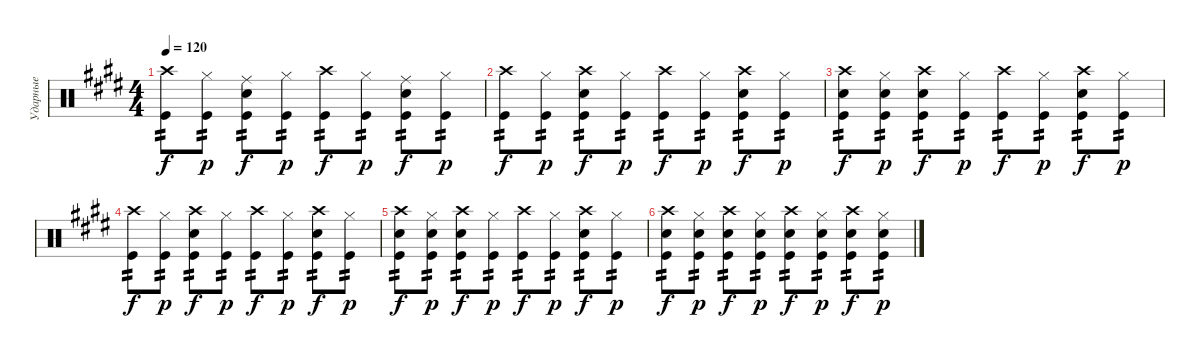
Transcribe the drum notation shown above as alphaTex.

\track ("Ударные" "Ударные") {instrument percussion}
\staff {score}
\articulation defaults
\ts (4 4)
\tempo 120
\clef neutral
\ks e
("Crash high (hit)" "Kick (hit)").8{tp 2 dy f} ("Hi-Hat (closed)" "Kick (hit)").8{tp 2 dy p} ("Ride (middle)" "Snare (hit) 2" "Kick (hit)").8{tp 2 dy f} ("Hi-Hat (closed)" "Kick (hit)").8{tp 2 dy p} ("Crash high (hit)" "Kick (hit)").8{tp 2 dy f} ("Hi-Hat (closed)" "Kick (hit)").8{tp 2 dy p} ("Ride (middle)" "Snare (hit) 2" "Kick (hit)").8{tp 2 dy f} ("Hi-Hat (closed)" "Kick (hit)").8{tp 2 dy p} |
("Crash high (hit)" "Kick (hit)").8{tp 2 dy f} ("Hi-Hat (closed)" "Kick (hit)").8{tp 2 dy p} ("Crash high (hit)" "Snare (hit) 2" "Kick (hit)").8{tp 2 dy f} ("Hi-Hat (closed)" "Kick (hit)").8{tp 2 dy p} ("Crash high (hit)" "Kick (hit)").8{tp 2 dy f} ("Hi-Hat (closed)" "Kick (hit)").8{tp 2 dy p} ("Crash high (hit)" "Snare (hit) 2" "Kick (hit)").8{tp 2 dy f} ("Hi-Hat (closed)" "Kick (hit)").8{tp 2 dy p} |
("Crash high (hit)" "Snare (hit) 2" "Kick (hit)").8{tp 2 dy f} ("Hi-Hat (closed)" "Snare (hit) 2" "Kick (hit)").8{tp 2 dy p} ("Crash high (hit)" "Snare (hit) 2" "Kick (hit)").8{tp 2 dy f} ("Hi-Hat (closed)" "Kick (hit)").8{tp 2 dy p} ("Crash high (hit)" "Kick (hit)").8{tp 2 dy f} ("Hi-Hat (closed)" "Kick (hit)").8{tp 2 dy p} ("Crash high (hit)" "Snare (hit) 2" "Kick (hit)").8{tp 2 dy f} ("Hi-Hat (closed)" "Kick (hit)").8{tp 2 dy p} |
("Crash high (hit)" "Kick (hit)").8{tp 2 dy f} ("Hi-Hat (closed)" "Kick (hit)").8{tp 2 dy p} ("Crash high (hit)" "Snare (hit) 2" "Kick (hit)").8{tp 2 dy f} ("Hi-Hat (closed)" "Kick (hit)").8{tp 2 dy p} ("Crash high (hit)" "Kick (hit)").8{tp 2 dy f} ("Hi-Hat (closed)" "Kick (hit)").8{tp 2 dy p} ("Crash high (hit)" "Snare (hit) 2" "Kick (hit)").8{tp 2 dy f} ("Hi-Hat (closed)" "Kick (hit)").8{tp 2 dy p} |
("Crash high (hit)" "Snare (hit) 2" "Kick (hit)").8{tp 2 dy f} ("Hi-Hat (closed)" "Snare (hit) 2" "Kick (hit)").8{tp 2 dy p} ("Crash high (hit)" "Snare (hit) 2" "Kick (hit)").8{tp 2 dy f} ("Hi-Hat (closed)" "Kick (hit)").8{tp 2 dy p} ("Crash high (hit)" "Kick (hit)").8{tp 2 dy f} ("Hi-Hat (closed)" "Kick (hit)").8{tp 2 dy p} ("Crash high (hit)" "Snare (hit) 2" "Kick (hit)").8{tp 2 dy f} ("Hi-Hat (closed)" "Kick (hit)").8{tp 2 dy p} |
("Crash high (hit)" "Snare (hit) 2" "Kick (hit)").8{tp 2 dy f} ("Hi-Hat (closed)" "Snare (hit) 2" "Kick (hit)").8{tp 2 dy p} ("Crash high (hit)" "Snare (hit) 2" "Kick (hit)").8{tp 2 dy f} ("Hi-Hat (closed)" "Snare (hit) 2" "Kick (hit)").8{tp 2 dy p} ("Crash high (hit)" "Snare (hit) 2" "Kick (hit)").8{tp 2 dy f} ("Hi-Hat (closed)" "Snare (hit) 2" "Kick (hit)").8{tp 2 dy p} ("Crash high (hit)" "Snare (hit) 2" "Kick (hit)").8{tp 2 dy f} ("Hi-Hat (closed)" "Snare (hit) 2" "Kick (hit)").8{tp 2 dy p}
